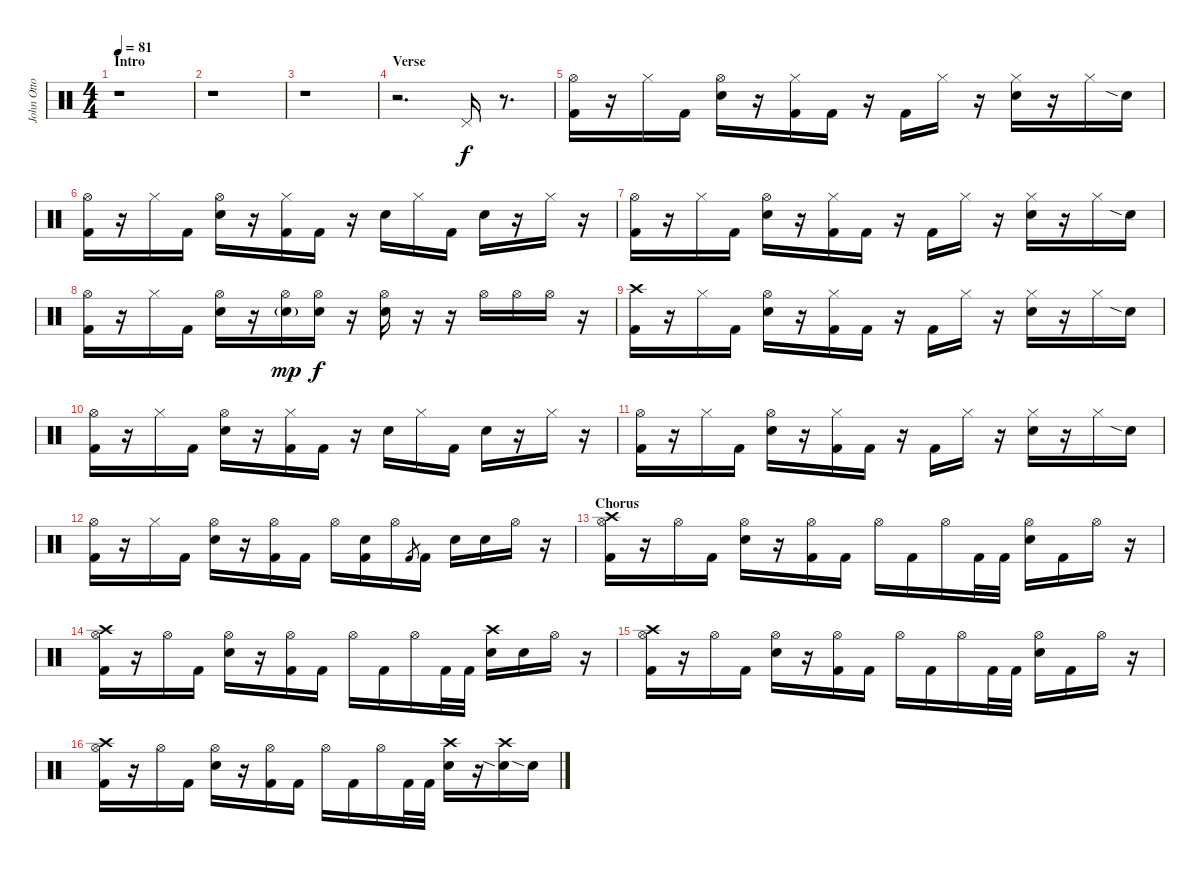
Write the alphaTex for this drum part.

\track ("John Otto" "John Otto") {instrument percussion}
\staff {score}
\articulation defaults
\ts (4 4)
\section ("" "Intro")
\tempo 81
\clef neutral
\ks c
r.1{dy f} |
r.1 |
r.1 |
\section ("" "Verse")
r.2{d} "Pedal Hi-Hat (hit)".16 r.8{d} |
("Hi-Hat (open)" "Kick (hit) 2").16 r.16 "Hi-Hat (closed)".16 "Kick (hit) 2".16 ("Hi-Hat (open)" "Snare (hit) 2").16 r.16 ("Hi-Hat (closed)" "Kick (hit) 2").16 "Kick (hit) 2".16 r.16 "Kick (hit) 2".16 "Hi-Hat (closed)".16 r.16 ("Hi-Hat (closed)" "Snare (hit) 2").16 r.16 "Hi-Hat (closed)".16 "Snare (hit) 2"{sia}.16 |
("Hi-Hat (open)" "Kick (hit) 2").16 r.16 "Hi-Hat (closed)".16 "Kick (hit) 2".16 ("Hi-Hat (open)" "Snare (hit) 2").16 r.16 ("Hi-Hat (closed)" "Kick (hit) 2").16 "Kick (hit) 2".16 r.16 "Snare (hit) 2".16 "Hi-Hat (closed)".16 "Kick (hit) 2".16 "Snare (hit) 2".16 r.16 "Hi-Hat (closed)".16 r.16 |
("Hi-Hat (open)" "Kick (hit) 2").16 r.16 "Hi-Hat (closed)".16 "Kick (hit) 2".16 ("Hi-Hat (open)" "Snare (hit) 2").16 r.16 ("Hi-Hat (closed)" "Kick (hit) 2").16 "Kick (hit) 2".16 r.16 "Kick (hit) 2".16 "Hi-Hat (closed)".16 r.16 ("Hi-Hat (closed)" "Snare (hit) 2").16 r.16 "Hi-Hat (closed)".16 "Snare (hit) 2"{sia}.16 |
("Hi-Hat (open)" "Kick (hit) 2").16 r.16 "Hi-Hat (closed)".16 "Kick (hit) 2".16 ("Hi-Hat (open)" "Snare (hit) 2").16 r.16 ("Hi-Hat (open)" "Snare (hit) 2"{g}).16{dy mp} ("Hi-Hat (open)" "Snare (hit) 2").16{dy f} r.16 ("Hi-Hat (open)" "Snare (hit) 2").16 r.16 r.16 "Hi-Hat (open)".16 "Hi-Hat (open)".16 "Hi-Hat (open)".16 r.16 |
("Crash high (hit)" "Kick (hit) 2").16 r.16 "Hi-Hat (closed)".16 "Kick (hit) 2".16 ("Hi-Hat (open)" "Snare (hit) 2").16 r.16 ("Hi-Hat (closed)" "Kick (hit) 2").16 "Kick (hit) 2".16 r.16 "Kick (hit) 2".16 "Hi-Hat (closed)".16 r.16 ("Hi-Hat (closed)" "Snare (hit) 2").16 r.16 "Hi-Hat (closed)".16 "Snare (hit) 2"{sia}.16 |
("Hi-Hat (open)" "Kick (hit) 2").16 r.16 "Hi-Hat (closed)".16 "Kick (hit) 2".16 ("Hi-Hat (open)" "Snare (hit) 2").16 r.16 ("Hi-Hat (closed)" "Kick (hit) 2").16 "Kick (hit) 2".16 r.16 "Snare (hit) 2".16 "Hi-Hat (closed)".16 "Kick (hit) 2".16 "Snare (hit) 2".16 r.16 "Hi-Hat (closed)".16 r.16 |
("Hi-Hat (open)" "Kick (hit) 2").16 r.16 "Hi-Hat (closed)".16 "Kick (hit) 2".16 ("Hi-Hat (open)" "Snare (hit) 2").16 r.16 ("Hi-Hat (closed)" "Kick (hit) 2").16 "Kick (hit) 2".16 r.16 "Kick (hit) 2".16 "Hi-Hat (closed)".16 r.16 ("Hi-Hat (closed)" "Snare (hit) 2").16 r.16 "Hi-Hat (closed)".16 "Snare (hit) 2"{sia}.16 |
("Hi-Hat (open)" "Kick (hit) 2").16 r.16 "Hi-Hat (closed)".16 "Kick (hit) 2".16 ("Hi-Hat (open)" "Snare (hit) 2").16 r.16 ("Hi-Hat (open)" "Kick (hit) 2").16 "Kick (hit) 2".16 "Hi-Hat (open)".16 ("Snare (hit) 2" "Kick (hit) 2").16 "Hi-Hat (open)".16 "Kick (hit) 2".8{gr} "Kick (hit) 2".16 "Snare (hit) 2".16 "Snare (hit) 2".16 "Hi-Hat (open)".16 r.16 |
\section ("" "Chorus")
("Crash high (hit)" "Hi-Hat (open)" "Kick (hit) 2").16 r.16 "Hi-Hat (open)".16 "Kick (hit) 2".16 ("Hi-Hat (open)" "Snare (hit) 2").16 r.16 ("Hi-Hat (open)" "Kick (hit) 2").16 "Kick (hit) 2".16 "Hi-Hat (open)".16 "Kick (hit) 2".16 "Hi-Hat (open)".16 "Kick (hit) 2".32 "Kick (hit) 2".32 ("Hi-Hat (open)" "Snare (hit) 2").16 "Kick (hit) 2".16 "Hi-Hat (open)".16 r.16 |
("Crash high (hit)" "Hi-Hat (open)" "Kick (hit) 2").16 r.16 "Hi-Hat (open)".16 "Kick (hit) 2".16 ("Hi-Hat (open)" "Snare (hit) 2").16 r.16 ("Hi-Hat (open)" "Kick (hit) 2").16 "Kick (hit) 2".16 "Hi-Hat (open)".16 "Kick (hit) 2".16 "Hi-Hat (open)".16 "Kick (hit) 2".32 "Kick (hit) 2".32 ("Crash high (hit)" "Snare (hit) 2").16 "Snare (hit) 2".16 "Hi-Hat (open)".16 r.16 |
("Crash high (hit)" "Hi-Hat (open)" "Kick (hit) 2").16 r.16 "Hi-Hat (open)".16 "Kick (hit) 2".16 ("Hi-Hat (open)" "Snare (hit) 2").16 r.16 ("Hi-Hat (open)" "Kick (hit) 2").16 "Kick (hit) 2".16 "Hi-Hat (open)".16 "Kick (hit) 2".16 "Hi-Hat (open)".16 "Kick (hit) 2".32 "Kick (hit) 2".32 ("Hi-Hat (open)" "Snare (hit) 2").16 "Kick (hit) 2".16 "Hi-Hat (open)".16 r.16 |
("Crash high (hit)" "Hi-Hat (open)" "Kick (hit) 2").16 r.16 "Hi-Hat (open)".16 "Kick (hit) 2".16 ("Hi-Hat (open)" "Snare (hit) 2").16 r.16 ("Hi-Hat (open)" "Kick (hit) 2").16 "Kick (hit) 2".16 "Hi-Hat (open)".16 "Kick (hit) 2".16 "Hi-Hat (open)".16 "Kick (hit) 2".32 "Kick (hit) 2".32 ("Crash high (hit)" "Snare (hit) 2").16 r.16 ("Crash high (hit)" "Snare (hit) 2"{sia}).16 "Snare (hit) 2"{sia}.16
